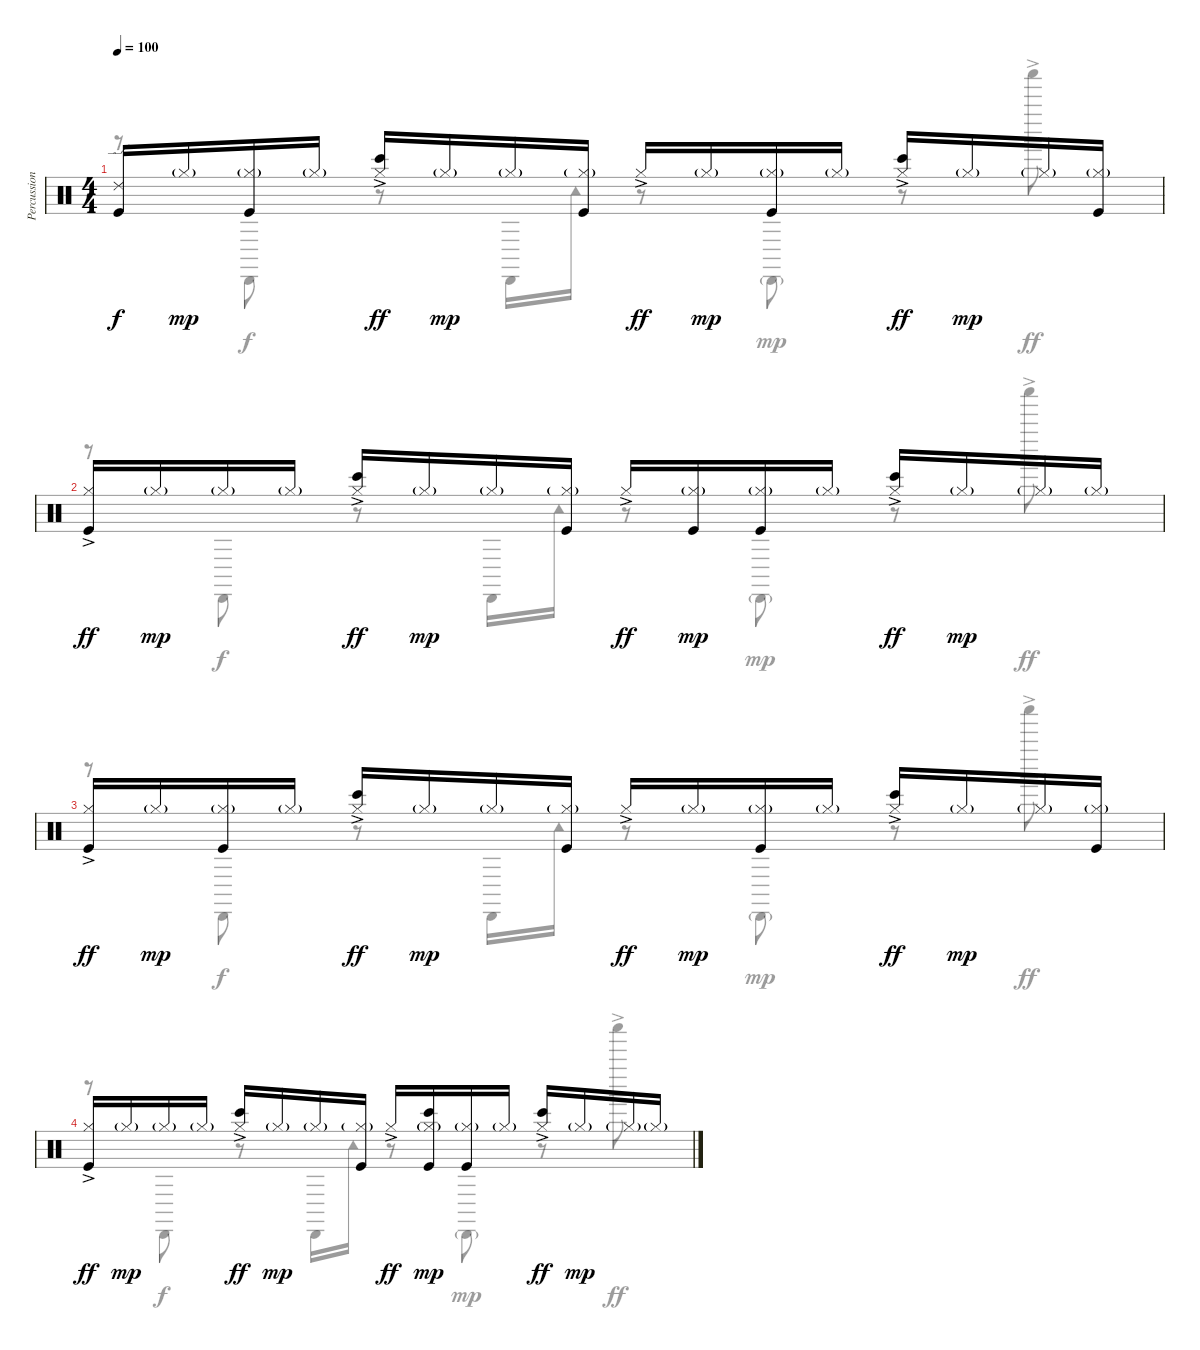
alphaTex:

\track ("Percussions" "Percussion") {instrument percussion}
\staff {score}
\articulation defaults
\voice
\ts (4 4)
\tempo 100
\clef neutral
\ks c
("Kick (hit)" "Ride (edge) 2").16{dy f} "Hi-Hat (closed)"{g}.16{dy mp} ("Kick (hit)" "Hi-Hat (closed)"{g}).16 "Hi-Hat (closed)"{g}.16 ("Bongo High (hit)" "Hi-Hat (closed)"{ac}).16{dy ff} "Hi-Hat (closed)"{g}.16{dy mp} "Hi-Hat (closed)"{g}.16 ("Kick (hit)" "Hi-Hat (closed)"{g}).16 "Hi-Hat (closed)"{ac}.16{dy ff} "Hi-Hat (closed)"{g}.16{dy mp} ("Kick (hit)" "Hi-Hat (closed)"{g}).16 "Hi-Hat (closed)"{g}.16 ("Bongo High (hit)" "Hi-Hat (closed)"{ac}).16{dy ff} "Hi-Hat (closed)"{g}.16{dy mp} "Hi-Hat (closed)"{g}.16 ("Kick (hit)" "Hi-Hat (closed)"{g}).16 |
("Kick (hit)" "Hi-Hat (closed)"{ac}).16{dy ff} "Hi-Hat (closed)"{g}.16{dy mp} "Hi-Hat (closed)"{g}.16 "Hi-Hat (closed)"{g}.16 ("Bongo High (hit)" "Hi-Hat (closed)"{ac}).16{dy ff} "Hi-Hat (closed)"{g}.16{dy mp} "Hi-Hat (closed)"{g}.16 ("Kick (hit)" "Hi-Hat (closed)"{g}).16 "Hi-Hat (closed)"{ac}.16{dy ff} ("Kick (hit)" "Hi-Hat (closed)"{g}).16{dy mp} ("Kick (hit)" "Hi-Hat (closed)"{g}).16 "Hi-Hat (closed)"{g}.16 ("Bongo High (hit)" "Hi-Hat (closed)"{ac}).16{dy ff} "Hi-Hat (closed)"{g}.16{dy mp} "Hi-Hat (closed)"{g}.16 "Hi-Hat (closed)"{g}.16 |
("Kick (hit)" "Hi-Hat (closed)"{ac}).16{dy ff} "Hi-Hat (closed)"{g}.16{dy mp} ("Kick (hit)" "Hi-Hat (closed)"{g}).16 "Hi-Hat (closed)"{g}.16 ("Bongo High (hit)" "Hi-Hat (closed)"{ac}).16{dy ff} "Hi-Hat (closed)"{g}.16{dy mp} "Hi-Hat (closed)"{g}.16 ("Kick (hit)" "Hi-Hat (closed)"{g}).16 "Hi-Hat (closed)"{ac}.16{dy ff} "Hi-Hat (closed)"{g}.16{dy mp} ("Kick (hit)" "Hi-Hat (closed)"{g}).16 "Hi-Hat (closed)"{g}.16 ("Bongo High (hit)" "Hi-Hat (closed)"{ac}).16{dy ff} "Hi-Hat (closed)"{g}.16{dy mp} "Hi-Hat (closed)"{g}.16 ("Kick (hit)" "Hi-Hat (closed)"{g}).16 |
("Kick (hit)" "Hi-Hat (closed)"{ac}).16{dy ff} "Hi-Hat (closed)"{g}.16{dy mp} "Hi-Hat (closed)"{g}.16 "Hi-Hat (closed)"{g}.16 ("Bongo High (hit)" "Hi-Hat (closed)"{ac}).16{dy ff} "Hi-Hat (closed)"{g}.16{dy mp} "Hi-Hat (closed)"{g}.16 ("Kick (hit)" "Hi-Hat (closed)"{g}).16 "Hi-Hat (closed)"{ac}.16{dy ff} ("Kick (hit)" "Bongo High (hit)" "Hi-Hat (closed)"{g}).16{dy mp} ("Kick (hit)" "Hi-Hat (closed)"{g}).16 "Hi-Hat (closed)"{g}.16 ("Bongo High (hit)" "Hi-Hat (closed)"{ac}).16{dy ff} "Hi-Hat (closed)"{g}.16{dy mp} "Hi-Hat (closed)"{g}.16 "Hi-Hat (closed)"{g}.16
\voice
\clef neutral
\ottava regular
\simile none
\ks c
r.8{dy ff} "Cabasa (hit)".8{dy f} r.8 "Cabasa (hit)".16 "Tambourine (hit)".16 r.8 "Cabasa (hit)"{g}.8{dy mp} r.8 "Shaker (hit)"{ac}.8{dy ff} |
r.8 "Cabasa (hit)".8{dy f} r.8 "Cabasa (hit)".16 "Tambourine (hit)".16 r.8 "Cabasa (hit)"{g}.8{dy mp} r.8 "Shaker (hit)"{ac}.8{dy ff} |
r.8 "Cabasa (hit)".8{dy f} r.8 "Cabasa (hit)".16 "Tambourine (hit)".16 r.8 "Cabasa (hit)"{g}.8{dy mp} r.8 "Shaker (hit)"{ac}.8{dy ff} |
r.8 "Cabasa (hit)".8{dy f} r.8 "Cabasa (hit)".16 "Tambourine (hit)".16 r.8 "Cabasa (hit)"{g}.8{dy mp} r.8 "Shaker (hit)"{ac}.8{dy ff}
